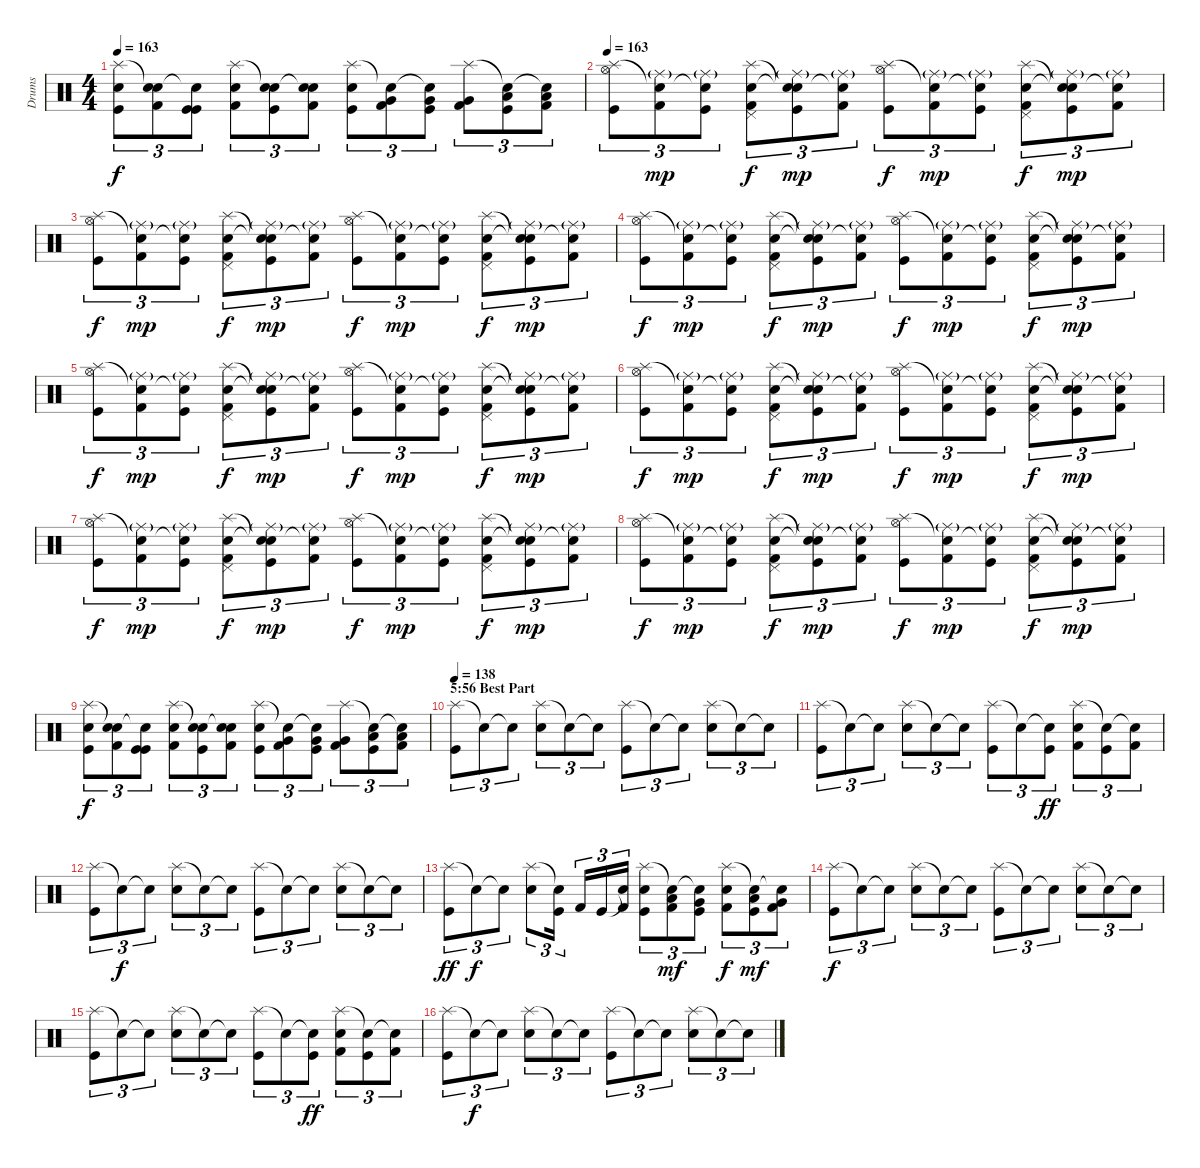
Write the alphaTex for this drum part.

\track ("Drums" "Drums") {instrument percussion}
\staff {score}
\articulation defaults
\ts (4 4)
\tempo 163
\clef neutral
\ks c
("Splash (hit)" "Snare (hit) 2" "Kick (hit)").8{tu (3 2) dy f} ("Snare (hit)"{t} "Snare (hit) 2" "Kick (hit) 2").8{tu (3 2)} ("Snare (hit)"{t} "Kick (hit)" "Kick (hit)").8{tu (3 2)} ("Splash (hit)" "Snare (hit) 2" "Kick (hit) 2").8{tu (3 2)} ("Snare (hit)"{t} "Snare (hit) 2" "Kick (hit)").8{tu (3 2)} ("Snare (hit)"{t} "Snare (hit) 2" "Kick (hit) 2").8{tu (3 2)} ("Splash (hit)" "Snare (hit) 2" "Kick (hit)").8{tu (3 2)} ("Snare (hit)"{t} "Very Low Tom (hit)" "Kick (hit) 2").8{tu (3 2)} ("Snare (hit)"{t} "Very Low Tom (hit)" "Kick (hit)").8{tu (3 2)} ("Splash (hit)" "Very Low Tom (hit)" "Kick (hit) 2").8{tu (3 2)} ("Snare (hit)"{t} "Low Floor Tom (hit)" "Kick (hit)").8{tu (3 2)} ("Snare (hit)"{t} "Low Floor Tom (hit)" "Kick (hit) 2").8{tu (3 2)} |
\tempo 163
("Splash (hit)" "Hi-Hat (open)" "Kick (hit)").8{tu (3 2)} ("Snare (hit)"{t} "Ride (middle)"{g} "Kick (hit) 2").8{tu (3 2) dy mp} ("Snare (hit)"{t} "Ride (middle)"{g} "Kick (hit)").8{tu (3 2)} ("Splash (hit)" "Pedal Hi-Hat (hit)" "Snare (hit) 2" "Kick (hit) 2").8{tu (3 2) dy f} ("Snare (hit)"{t} "Ride (middle)"{g} "Snare (hit)"{t} "Kick (hit)").8{tu (3 2) dy mp} ("Snare (hit)"{t} "Ride (middle)"{g} "Kick (hit) 2").8{tu (3 2)} ("Splash (hit)" "Hi-Hat (open)" "Kick (hit)").8{tu (3 2) dy f} ("Snare (hit)"{t} "Ride (middle)"{g} "Kick (hit) 2").8{tu (3 2) dy mp} ("Snare (hit)"{t} "Ride (middle)"{g} "Kick (hit)").8{tu (3 2)} ("Splash (hit)" "Pedal Hi-Hat (hit)" "Snare (hit) 2" "Kick (hit) 2").8{tu (3 2) dy f} ("Snare (hit)"{t} "Ride (middle)"{g} "Snare (hit)"{t} "Kick (hit)").8{tu (3 2) dy mp} ("Snare (hit)"{t} "Ride (middle)"{g} "Kick (hit) 2").8{tu (3 2)} |
("Splash (hit)" "Hi-Hat (open)" "Kick (hit)").8{tu (3 2) dy f} ("Snare (hit)"{t} "Ride (middle)"{g} "Kick (hit) 2").8{tu (3 2) dy mp} ("Snare (hit)"{t} "Ride (middle)"{g} "Kick (hit)").8{tu (3 2)} ("Splash (hit)" "Pedal Hi-Hat (hit)" "Snare (hit) 2" "Kick (hit) 2").8{tu (3 2) dy f} ("Snare (hit)"{t} "Ride (middle)"{g} "Snare (hit)"{t} "Kick (hit)").8{tu (3 2) dy mp} ("Snare (hit)"{t} "Ride (middle)"{g} "Kick (hit) 2").8{tu (3 2)} ("Splash (hit)" "Hi-Hat (open)" "Kick (hit)").8{tu (3 2) dy f} ("Snare (hit)"{t} "Ride (middle)"{g} "Kick (hit) 2").8{tu (3 2) dy mp} ("Snare (hit)"{t} "Ride (middle)"{g} "Kick (hit)").8{tu (3 2)} ("Splash (hit)" "Pedal Hi-Hat (hit)" "Snare (hit) 2" "Kick (hit) 2").8{tu (3 2) dy f} ("Snare (hit)"{t} "Ride (middle)"{g} "Snare (hit)"{t} "Kick (hit)").8{tu (3 2) dy mp} ("Snare (hit)"{t} "Ride (middle)"{g} "Kick (hit) 2").8{tu (3 2)} |
("Splash (hit)" "Hi-Hat (open)" "Kick (hit)").8{tu (3 2) dy f} ("Snare (hit)"{t} "Ride (middle)"{g} "Kick (hit) 2").8{tu (3 2) dy mp} ("Snare (hit)"{t} "Ride (middle)"{g} "Kick (hit)").8{tu (3 2)} ("Splash (hit)" "Pedal Hi-Hat (hit)" "Snare (hit) 2" "Kick (hit) 2").8{tu (3 2) dy f} ("Snare (hit)"{t} "Ride (middle)"{g} "Snare (hit)"{t} "Kick (hit)").8{tu (3 2) dy mp} ("Snare (hit)"{t} "Ride (middle)"{g} "Kick (hit) 2").8{tu (3 2)} ("Splash (hit)" "Hi-Hat (open)" "Kick (hit)").8{tu (3 2) dy f} ("Snare (hit)"{t} "Ride (middle)"{g} "Kick (hit) 2").8{tu (3 2) dy mp} ("Snare (hit)"{t} "Ride (middle)"{g} "Kick (hit)").8{tu (3 2)} ("Splash (hit)" "Pedal Hi-Hat (hit)" "Snare (hit) 2" "Kick (hit) 2").8{tu (3 2) dy f} ("Snare (hit)"{t} "Ride (middle)"{g} "Snare (hit)"{t} "Kick (hit)").8{tu (3 2) dy mp} ("Snare (hit)"{t} "Ride (middle)"{g} "Kick (hit) 2").8{tu (3 2)} |
("Splash (hit)" "Hi-Hat (open)" "Kick (hit)").8{tu (3 2) dy f} ("Snare (hit)"{t} "Ride (middle)"{g} "Kick (hit) 2").8{tu (3 2) dy mp} ("Snare (hit)"{t} "Ride (middle)"{g} "Kick (hit)").8{tu (3 2)} ("Splash (hit)" "Pedal Hi-Hat (hit)" "Snare (hit) 2" "Kick (hit) 2").8{tu (3 2) dy f} ("Snare (hit)"{t} "Ride (middle)"{g} "Snare (hit)"{t} "Kick (hit)").8{tu (3 2) dy mp} ("Snare (hit)"{t} "Ride (middle)"{g} "Kick (hit) 2").8{tu (3 2)} ("Splash (hit)" "Hi-Hat (open)" "Kick (hit)").8{tu (3 2) dy f} ("Snare (hit)"{t} "Ride (middle)"{g} "Kick (hit) 2").8{tu (3 2) dy mp} ("Snare (hit)"{t} "Ride (middle)"{g} "Kick (hit)").8{tu (3 2)} ("Splash (hit)" "Pedal Hi-Hat (hit)" "Snare (hit) 2" "Kick (hit) 2").8{tu (3 2) dy f} ("Snare (hit)"{t} "Ride (middle)"{g} "Snare (hit)"{t} "Kick (hit)").8{tu (3 2) dy mp} ("Snare (hit)"{t} "Ride (middle)"{g} "Kick (hit) 2").8{tu (3 2)} |
("Splash (hit)" "Hi-Hat (open)" "Kick (hit)").8{tu (3 2) dy f} ("Snare (hit)"{t} "Ride (middle)"{g} "Kick (hit) 2").8{tu (3 2) dy mp} ("Snare (hit)"{t} "Ride (middle)"{g} "Kick (hit)").8{tu (3 2)} ("Splash (hit)" "Pedal Hi-Hat (hit)" "Snare (hit) 2" "Kick (hit) 2").8{tu (3 2) dy f} ("Snare (hit)"{t} "Ride (middle)"{g} "Snare (hit)"{t} "Kick (hit)").8{tu (3 2) dy mp} ("Snare (hit)"{t} "Ride (middle)"{g} "Kick (hit) 2").8{tu (3 2)} ("Splash (hit)" "Hi-Hat (open)" "Kick (hit)").8{tu (3 2) dy f} ("Snare (hit)"{t} "Ride (middle)"{g} "Kick (hit) 2").8{tu (3 2) dy mp} ("Snare (hit)"{t} "Ride (middle)"{g} "Kick (hit)").8{tu (3 2)} ("Splash (hit)" "Pedal Hi-Hat (hit)" "Snare (hit) 2" "Kick (hit) 2").8{tu (3 2) dy f} ("Snare (hit)"{t} "Ride (middle)"{g} "Snare (hit)"{t} "Kick (hit)").8{tu (3 2) dy mp} ("Snare (hit)"{t} "Ride (middle)"{g} "Kick (hit) 2").8{tu (3 2)} |
("Splash (hit)" "Hi-Hat (open)" "Kick (hit)").8{tu (3 2) dy f} ("Snare (hit)"{t} "Ride (middle)"{g} "Kick (hit) 2").8{tu (3 2) dy mp} ("Snare (hit)"{t} "Ride (middle)"{g} "Kick (hit)").8{tu (3 2)} ("Splash (hit)" "Pedal Hi-Hat (hit)" "Snare (hit) 2" "Kick (hit) 2").8{tu (3 2) dy f} ("Snare (hit)"{t} "Ride (middle)"{g} "Snare (hit)"{t} "Kick (hit)").8{tu (3 2) dy mp} ("Snare (hit)"{t} "Ride (middle)"{g} "Kick (hit) 2").8{tu (3 2)} ("Splash (hit)" "Hi-Hat (open)" "Kick (hit)").8{tu (3 2) dy f} ("Snare (hit)"{t} "Ride (middle)"{g} "Kick (hit) 2").8{tu (3 2) dy mp} ("Snare (hit)"{t} "Ride (middle)"{g} "Kick (hit)").8{tu (3 2)} ("Splash (hit)" "Pedal Hi-Hat (hit)" "Snare (hit) 2" "Kick (hit) 2").8{tu (3 2) dy f} ("Snare (hit)"{t} "Ride (middle)"{g} "Snare (hit)"{t} "Kick (hit)").8{tu (3 2) dy mp} ("Snare (hit)"{t} "Ride (middle)"{g} "Kick (hit) 2").8{tu (3 2)} |
("Splash (hit)" "Hi-Hat (open)" "Kick (hit)").8{tu (3 2) dy f} ("Snare (hit)"{t} "Ride (middle)"{g} "Kick (hit) 2").8{tu (3 2) dy mp} ("Snare (hit)"{t} "Ride (middle)"{g} "Kick (hit)").8{tu (3 2)} ("Splash (hit)" "Pedal Hi-Hat (hit)" "Snare (hit) 2" "Kick (hit) 2").8{tu (3 2) dy f} ("Snare (hit)"{t} "Ride (middle)"{g} "Snare (hit)"{t} "Kick (hit)").8{tu (3 2) dy mp} ("Snare (hit)"{t} "Ride (middle)"{g} "Kick (hit) 2").8{tu (3 2)} ("Splash (hit)" "Hi-Hat (open)" "Kick (hit)").8{tu (3 2) dy f} ("Snare (hit)"{t} "Ride (middle)"{g} "Kick (hit) 2").8{tu (3 2) dy mp} ("Snare (hit)"{t} "Ride (middle)"{g} "Kick (hit)").8{tu (3 2)} ("Splash (hit)" "Pedal Hi-Hat (hit)" "Snare (hit) 2" "Kick (hit) 2").8{tu (3 2) dy f} ("Snare (hit)"{t} "Ride (middle)"{g} "Snare (hit)"{t} "Kick (hit)").8{tu (3 2) dy mp} ("Snare (hit)"{t} "Ride (middle)"{g} "Kick (hit) 2").8{tu (3 2)} |
("Splash (hit)" "Snare (hit) 2" "Kick (hit)").8{tu (3 2) dy f} ("Snare (hit)"{t} "Snare (hit) 2" "Kick (hit) 2").8{tu (3 2)} ("Snare (hit)"{t} "Kick (hit)" "Kick (hit)").8{tu (3 2)} ("Splash (hit)" "Snare (hit) 2" "Kick (hit) 2").8{tu (3 2)} ("Snare (hit)"{t} "Snare (hit) 2" "Kick (hit)").8{tu (3 2)} ("Snare (hit)"{t} "Snare (hit) 2" "Kick (hit) 2").8{tu (3 2)} ("Splash (hit)" "Snare (hit) 2" "Kick (hit)").8{tu (3 2)} ("Snare (hit)"{t} "Very Low Tom (hit)" "Kick (hit) 2").8{tu (3 2)} ("Snare (hit)"{t} "Very Low Tom (hit)" "Kick (hit)").8{tu (3 2)} ("Splash (hit)" "Very Low Tom (hit)" "Kick (hit) 2").8{tu (3 2)} ("Snare (hit)"{t} "Low Floor Tom (hit)" "Kick (hit)").8{tu (3 2)} ("Snare (hit)"{t} "Low Floor Tom (hit)" "Kick (hit) 2").8{tu (3 2)} |
\section ("" "5:56 Best Part")
\tempo 138
("Splash (hit)" "Kick (hit)").8{tu (3 2)} "Snare (hit)"{t}.8{tu (3 2)} "Snare (hit)"{t}.8{tu (3 2)} ("Splash (hit)" "Snare (hit) 2").8{tu (3 2)} "Snare (hit)"{t}.8{tu (3 2)} "Snare (hit)"{t}.8{tu (3 2)} ("Splash (hit)" "Kick (hit)").8{tu (3 2)} "Snare (hit)"{t}.8{tu (3 2)} "Snare (hit)"{t}.8{tu (3 2)} ("Splash (hit)" "Snare (hit) 2").8{tu (3 2)} "Snare (hit)"{t}.8{tu (3 2)} "Snare (hit)"{t}.8{tu (3 2)} |
("Splash (hit)" "Kick (hit)").8{tu (3 2)} "Snare (hit)"{t}.8{tu (3 2)} "Snare (hit)"{t}.8{tu (3 2)} ("Splash (hit)" "Snare (hit) 2").8{tu (3 2)} "Snare (hit)"{t}.8{tu (3 2)} "Snare (hit)"{t}.8{tu (3 2)} ("Splash (hit)" "Kick (hit)").8{tu (3 2)} "Snare (hit)"{t}.8{tu (3 2)} ("Snare (hit)"{t} "Kick (hit)").8{tu (3 2) dy ff} ("Splash (hit)" "Snare (hit) 2" "Kick (hit) 2").8{tu (3 2)} ("Snare (hit)"{t} "Kick (hit)").8{tu (3 2)} ("Snare (hit)"{t} "Kick (hit) 2").8{tu (3 2)} |
("Splash (hit)" "Kick (hit)").8{tu (3 2)} "Snare (hit)"{t}.8{tu (3 2) dy f} "Snare (hit)"{t}.8{tu (3 2)} ("Splash (hit)" "Snare (hit) 2").8{tu (3 2)} "Snare (hit)"{t}.8{tu (3 2)} "Snare (hit)"{t}.8{tu (3 2)} ("Splash (hit)" "Kick (hit)").8{tu (3 2)} "Snare (hit)"{t}.8{tu (3 2)} "Snare (hit)"{t}.8{tu (3 2)} ("Splash (hit)" "Snare (hit) 2").8{tu (3 2)} "Snare (hit)"{t}.8{tu (3 2)} "Snare (hit)"{t}.8{tu (3 2)} |
("Splash (hit)" "Kick (hit)").8{tu (3 2) dy ff} "Snare (hit)"{t}.8{tu (3 2) dy f} "Snare (hit)"{t}.8{tu (3 2)} ("Splash (hit)" "Snare (hit) 2").8{tu (3 2)} ("Snare (hit)"{t} "Kick (hit)").16{tu (3 2)} "Kick (hit) 2".16{tu (3 2)} "Kick (hit)".16{tu (3 2)} ("Snare (hit)"{t} "Kick (hit) 2").16{tu (3 2)} ("Splash (hit)" "Snare (hit) 2" "Kick (hit)").8{tu (3 2)} ("Snare (hit)"{t} "Low Tom (hit)" "Kick (hit) 2").8{tu (3 2) dy mf} ("Snare (hit)"{t} "Very Low Tom (hit)" "Kick (hit)").8{tu (3 2)} ("Splash (hit)" "Snare (hit) 2" "Kick (hit) 2").8{tu (3 2) dy f} ("Snare (hit)"{t} "Low Tom (hit)" "Kick (hit)").8{tu (3 2) dy mf} ("Snare (hit)"{t} "Very Low Tom (hit)" "Kick (hit) 2").8{tu (3 2)} |
("Splash (hit)" "Kick (hit)").8{tu (3 2) dy f} "Snare (hit)"{t}.8{tu (3 2)} "Snare (hit)"{t}.8{tu (3 2)} ("Splash (hit)" "Snare (hit) 2").8{tu (3 2)} "Snare (hit)"{t}.8{tu (3 2)} "Snare (hit)"{t}.8{tu (3 2)} ("Splash (hit)" "Kick (hit)").8{tu (3 2)} "Snare (hit)"{t}.8{tu (3 2)} "Snare (hit)"{t}.8{tu (3 2)} ("Splash (hit)" "Snare (hit) 2").8{tu (3 2)} "Snare (hit)"{t}.8{tu (3 2)} "Snare (hit)"{t}.8{tu (3 2)} |
("Splash (hit)" "Kick (hit)").8{tu (3 2)} "Snare (hit)"{t}.8{tu (3 2)} "Snare (hit)"{t}.8{tu (3 2)} ("Splash (hit)" "Snare (hit) 2").8{tu (3 2)} "Snare (hit)"{t}.8{tu (3 2)} "Snare (hit)"{t}.8{tu (3 2)} ("Splash (hit)" "Kick (hit)").8{tu (3 2)} "Snare (hit)"{t}.8{tu (3 2)} ("Snare (hit)"{t} "Kick (hit)").8{tu (3 2) dy ff} ("Splash (hit)" "Snare (hit) 2" "Kick (hit) 2").8{tu (3 2)} ("Snare (hit)"{t} "Kick (hit)").8{tu (3 2)} ("Snare (hit)"{t} "Kick (hit) 2").8{tu (3 2)} |
("Splash (hit)" "Kick (hit)").8{tu (3 2)} "Snare (hit)"{t}.8{tu (3 2) dy f} "Snare (hit)"{t}.8{tu (3 2)} ("Splash (hit)" "Snare (hit) 2").8{tu (3 2)} "Snare (hit)"{t}.8{tu (3 2)} "Snare (hit)"{t}.8{tu (3 2)} ("Splash (hit)" "Kick (hit)").8{tu (3 2)} "Snare (hit)"{t}.8{tu (3 2)} "Snare (hit)"{t}.8{tu (3 2)} ("Splash (hit)" "Snare (hit) 2").8{tu (3 2)} "Snare (hit)"{t}.8{tu (3 2)} "Snare (hit)"{t}.8{tu (3 2)}
